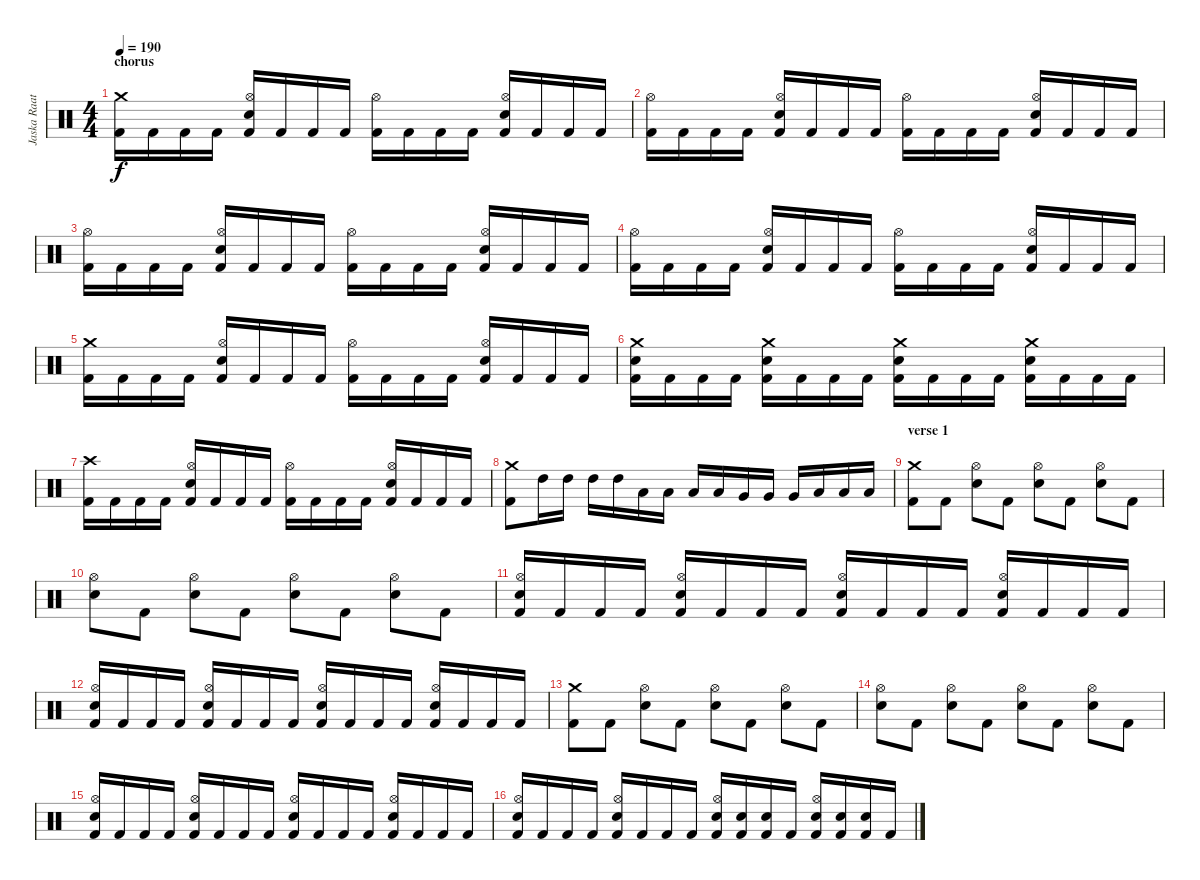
\track ("Jaska Raatikainen" "Jaska Raat") {instrument percussion}
\staff {score}
\articulation defaults
\ts (4 4)
\section ("" "chorus")
\tempo 190
\clef neutral
\ks c
("Crash medium (hit)" "Kick (hit) 2").16{dy f} "Kick (hit) 2".16 "Kick (hit) 2".16 "Kick (hit) 2".16 ("Hi-Hat (open)" "Snare (hit) 2" "Kick (hit) 2").16 "Kick (hit) 2".16 "Kick (hit) 2".16 "Kick (hit) 2".16 ("Hi-Hat (open)" "Kick (hit) 2").16 "Kick (hit) 2".16 "Kick (hit) 2".16 "Kick (hit) 2".16 ("Hi-Hat (open)" "Snare (hit) 2" "Kick (hit) 2").16 "Kick (hit) 2".16 "Kick (hit) 2".16 "Kick (hit) 2".16 |
("Hi-Hat (open)" "Kick (hit) 2").16 "Kick (hit) 2".16 "Kick (hit) 2".16 "Kick (hit) 2".16 ("Hi-Hat (open)" "Snare (hit) 2" "Kick (hit) 2").16 "Kick (hit) 2".16 "Kick (hit) 2".16 "Kick (hit) 2".16 ("Hi-Hat (open)" "Kick (hit) 2").16 "Kick (hit) 2".16 "Kick (hit) 2".16 "Kick (hit) 2".16 ("Hi-Hat (open)" "Snare (hit) 2" "Kick (hit) 2").16 "Kick (hit) 2".16 "Kick (hit) 2".16 "Kick (hit) 2".16 |
("Hi-Hat (open)" "Kick (hit) 2").16 "Kick (hit) 2".16 "Kick (hit) 2".16 "Kick (hit) 2".16 ("Hi-Hat (open)" "Snare (hit) 2" "Kick (hit) 2").16 "Kick (hit) 2".16 "Kick (hit) 2".16 "Kick (hit) 2".16 ("Hi-Hat (open)" "Kick (hit) 2").16 "Kick (hit) 2".16 "Kick (hit) 2".16 "Kick (hit) 2".16 ("Hi-Hat (open)" "Snare (hit) 2" "Kick (hit) 2").16 "Kick (hit) 2".16 "Kick (hit) 2".16 "Kick (hit) 2".16 |
("Hi-Hat (open)" "Kick (hit) 2").16 "Kick (hit) 2".16 "Kick (hit) 2".16 "Kick (hit) 2".16 ("Hi-Hat (open)" "Snare (hit) 2" "Kick (hit) 2").16 "Kick (hit) 2".16 "Kick (hit) 2".16 "Kick (hit) 2".16 ("Hi-Hat (open)" "Kick (hit) 2").16 "Kick (hit) 2".16 "Kick (hit) 2".16 "Kick (hit) 2".16 ("Hi-Hat (open)" "Snare (hit) 2" "Kick (hit) 2").16 "Kick (hit) 2".16 "Kick (hit) 2".16 "Kick (hit) 2".16 |
("Crash medium (hit)" "Kick (hit) 2").16 "Kick (hit) 2".16 "Kick (hit) 2".16 "Kick (hit) 2".16 ("Hi-Hat (open)" "Snare (hit) 2" "Kick (hit) 2").16 "Kick (hit) 2".16 "Kick (hit) 2".16 "Kick (hit) 2".16 ("Hi-Hat (open)" "Kick (hit) 2").16 "Kick (hit) 2".16 "Kick (hit) 2".16 "Kick (hit) 2".16 ("Hi-Hat (open)" "Snare (hit) 2" "Kick (hit) 2").16 "Kick (hit) 2".16 "Kick (hit) 2".16 "Kick (hit) 2".16 |
("Crash medium (hit)" "Snare (hit) 2" "Kick (hit) 2").16 "Kick (hit) 2".16 "Kick (hit) 2".16 "Kick (hit) 2".16 ("Crash medium (hit)" "Snare (hit) 2" "Kick (hit) 2").16 "Kick (hit) 2".16 "Kick (hit) 2".16 "Kick (hit) 2".16 ("Crash medium (hit)" "Snare (hit) 2" "Kick (hit) 2").16 "Kick (hit) 2".16 "Kick (hit) 2".16 "Kick (hit) 2".16 ("Crash medium (hit)" "Snare (hit) 2" "Kick (hit) 2").16 "Kick (hit) 2".16 "Kick (hit) 2".16 "Kick (hit) 2".16 |
("Crash high (hit)" "Kick (hit) 2").16 "Kick (hit) 2".16 "Kick (hit) 2".16 "Kick (hit) 2".16 ("Hi-Hat (open)" "Snare (hit) 2" "Kick (hit) 2").16 "Kick (hit) 2".16 "Kick (hit) 2".16 "Kick (hit) 2".16 ("Hi-Hat (open)" "Kick (hit) 2").16 "Kick (hit) 2".16 "Kick (hit) 2".16 "Kick (hit) 2".16 ("Hi-Hat (open)" "Snare (hit) 2" "Kick (hit) 2").16 "Kick (hit) 2".16 "Kick (hit) 2".16 "Kick (hit) 2".16 |
("Crash medium (hit)" "Kick (hit) 2").8 "High Tom (hit)".16 "High Tom (hit)".16 "High Tom (hit)".16 "High Tom (hit)".16 "Low Tom (hit)".16 "Low Tom (hit)".16 "Low Tom (hit)".16 "Low Tom (hit)".16 "Very Low Tom (hit)".16 "Very Low Tom (hit)".16 "Very Low Tom (hit)".16 "Low Floor Tom (hit)".16 "Low Floor Tom (hit)".16 "Low Floor Tom (hit)".16 |
\section ("" "verse 1")
("Crash medium (hit)" "Kick (hit) 2").8 "Kick (hit) 2".8 ("Hi-Hat (open)" "Snare (hit) 2").8 "Kick (hit) 2".8 ("Hi-Hat (open)" "Snare (hit) 2").8 "Kick (hit) 2".8 ("Hi-Hat (open)" "Snare (hit) 2").8 "Kick (hit) 2".8 |
("Hi-Hat (open)" "Snare (hit) 2").8 "Kick (hit) 2".8 ("Hi-Hat (open)" "Snare (hit) 2").8 "Kick (hit) 2".8 ("Hi-Hat (open)" "Snare (hit) 2").8 "Kick (hit) 2".8 ("Hi-Hat (open)" "Snare (hit) 2").8 "Kick (hit) 2".8 |
("Hi-Hat (open)" "Snare (hit) 2" "Kick (hit) 2").16 "Kick (hit) 2".16 "Kick (hit) 2".16 "Kick (hit) 2".16 ("Hi-Hat (open)" "Snare (hit) 2" "Kick (hit) 2").16 "Kick (hit) 2".16 "Kick (hit) 2".16 "Kick (hit) 2".16 ("Hi-Hat (open)" "Snare (hit) 2" "Kick (hit) 2").16 "Kick (hit) 2".16 "Kick (hit) 2".16 "Kick (hit) 2".16 ("Hi-Hat (open)" "Snare (hit) 2" "Kick (hit) 2").16 "Kick (hit) 2".16 "Kick (hit) 2".16 "Kick (hit) 2".16 |
("Hi-Hat (open)" "Snare (hit) 2" "Kick (hit) 2").16 "Kick (hit) 2".16 "Kick (hit) 2".16 "Kick (hit) 2".16 ("Hi-Hat (open)" "Snare (hit) 2" "Kick (hit) 2").16 "Kick (hit) 2".16 "Kick (hit) 2".16 "Kick (hit) 2".16 ("Hi-Hat (open)" "Snare (hit) 2" "Kick (hit) 2").16 "Kick (hit) 2".16 "Kick (hit) 2".16 "Kick (hit) 2".16 ("Hi-Hat (open)" "Snare (hit) 2" "Kick (hit) 2").16 "Kick (hit) 2".16 "Kick (hit) 2".16 "Kick (hit) 2".16 |
("Crash medium (hit)" "Kick (hit) 2").8 "Kick (hit) 2".8 ("Hi-Hat (open)" "Snare (hit) 2").8 "Kick (hit) 2".8 ("Hi-Hat (open)" "Snare (hit) 2").8 "Kick (hit) 2".8 ("Hi-Hat (open)" "Snare (hit) 2").8 "Kick (hit) 2".8 |
("Hi-Hat (open)" "Snare (hit) 2").8 "Kick (hit) 2".8 ("Hi-Hat (open)" "Snare (hit) 2").8 "Kick (hit) 2".8 ("Hi-Hat (open)" "Snare (hit) 2").8 "Kick (hit) 2".8 ("Hi-Hat (open)" "Snare (hit) 2").8 "Kick (hit) 2".8 |
("Hi-Hat (open)" "Snare (hit) 2" "Kick (hit) 2").16 "Kick (hit) 2".16 "Kick (hit) 2".16 "Kick (hit) 2".16 ("Hi-Hat (open)" "Snare (hit) 2" "Kick (hit) 2").16 "Kick (hit) 2".16 "Kick (hit) 2".16 "Kick (hit) 2".16 ("Hi-Hat (open)" "Snare (hit) 2" "Kick (hit) 2").16 "Kick (hit) 2".16 "Kick (hit) 2".16 "Kick (hit) 2".16 ("Hi-Hat (open)" "Snare (hit) 2" "Kick (hit) 2").16 "Kick (hit) 2".16 "Kick (hit) 2".16 "Kick (hit) 2".16 |
("Hi-Hat (open)" "Snare (hit) 2" "Kick (hit) 2").16 "Kick (hit) 2".16 "Kick (hit) 2".16 "Kick (hit) 2".16 ("Hi-Hat (open)" "Snare (hit) 2" "Kick (hit) 2").16 "Kick (hit) 2".16 "Kick (hit) 2".16 "Kick (hit) 2".16 ("Hi-Hat (open)" "Snare (hit) 2" "Kick (hit) 2").16 ("Snare (hit) 2" "Kick (hit) 2").16 ("Snare (hit) 2" "Kick (hit) 2").16 "Kick (hit) 2".16 ("Hi-Hat (open)" "Snare (hit) 2" "Kick (hit) 2").16 ("Snare (hit) 2" "Kick (hit) 2").16 ("Snare (hit) 2" "Kick (hit) 2").16 "Kick (hit) 2".16
